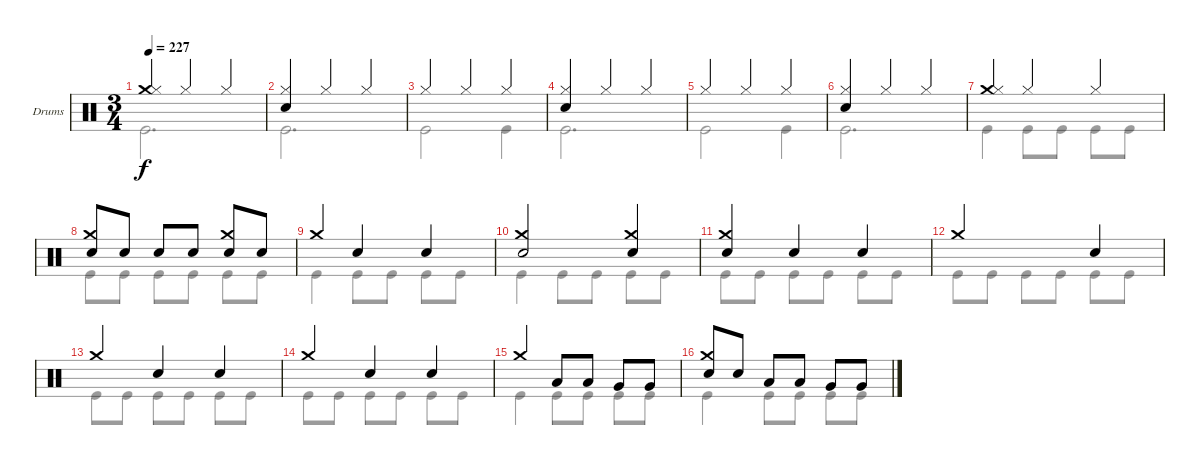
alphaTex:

\bracketExtendMode groupsimilarinstruments
\firstSystemTrackNameOrientation horizontal
\otherSystemsTrackNameOrientation horizontal
\track ("Drumkit" "Drums") {instrument percussion}
\staff {score}
\articulation defaults
\voice
\ts (3 4)
\tempo 227
\clef neutral
\ks c
("Crash medium (hit)" "Hi-Hat (closed)").4{dy f} "Hi-Hat (closed)".4 "Hi-Hat (closed)".4 |
("Snare (hit) 2" "Hi-Hat (closed)").4 "Hi-Hat (closed)".4 "Hi-Hat (closed)".4 |
"Hi-Hat (closed)".4 "Hi-Hat (closed)".4 "Hi-Hat (closed)".4 |
("Snare (hit) 2" "Hi-Hat (closed)").4 "Hi-Hat (closed)".4 "Hi-Hat (closed)".4 |
"Hi-Hat (closed)".4 "Hi-Hat (closed)".4 "Hi-Hat (closed)".4 |
("Snare (hit) 2" "Hi-Hat (closed)").4 "Hi-Hat (closed)".4 "Hi-Hat (closed)".4 |
("Crash medium (hit)" "Hi-Hat (closed)").4 "Hi-Hat (closed)".4 "Hi-Hat (closed)".4 |
("Crash medium (hit)" "Snare (hit) 2").8 "Snare (hit) 2".8 "Snare (hit) 2".8 "Snare (hit) 2".8 ("Crash medium (hit)" "Snare (hit) 2").8 "Snare (hit) 2".8 |
"Crash medium (hit)".4 "Snare (hit) 2".4 "Snare (hit) 2".4 |
("Crash medium (hit)" "Snare (hit) 2").2 ("Crash medium (hit)" "Snare (hit) 2").4 |
("Crash medium (hit)" "Snare (hit) 2").4 "Snare (hit) 2".4 "Snare (hit) 2".4 |
"Crash medium (hit)".2 "Snare (hit) 2".4 |
"Crash medium (hit)".4 "Snare (hit) 2".4 "Snare (hit) 2".4 |
"Crash medium (hit)".4 "Snare (hit) 2".4 "Snare (hit) 2".4 |
"Crash medium (hit)".4 "Low Tom (hit)".8 "Low Tom (hit)".8 "Very Low Tom (hit)".8 "Very Low Tom (hit)".8 |
("Crash medium (hit)" "Snare (hit) 2").8 "Snare (hit) 2".8 "Low Tom (hit)".8 "Low Tom (hit)".8 "Very Low Tom (hit)".8 "Very Low Tom (hit)".8
\voice
\clef neutral
\ottava regular
\simile none
\ks c "Kick (hit)".2{d dy f}
|
"Kick (hit)".2{d} |
"Kick (hit)".2 "Kick (hit)".4 |
"Kick (hit)".2{d} |
"Kick (hit)".2 "Kick (hit)".4 |
"Kick (hit)".2{d} |
"Kick (hit)".4 "Kick (hit)".8 "Kick (hit)".8 "Kick (hit)".8 "Kick (hit)".8 |
"Kick (hit)".8 "Kick (hit)".8 "Kick (hit)".8 "Kick (hit)".8 "Kick (hit)".8 "Kick (hit)".8 |
"Kick (hit)".4 "Kick (hit)".8 "Kick (hit)".8 "Kick (hit)".8 "Kick (hit)".8 |
"Kick (hit)".4 "Kick (hit)".8 "Kick (hit)".8 "Kick (hit)".8 "Kick (hit)".8 |
"Kick (hit)".8 "Kick (hit)".8 "Kick (hit)".8 "Kick (hit)".8 "Kick (hit)".8 "Kick (hit)".8 |
"Kick (hit)".8 "Kick (hit)".8 "Kick (hit)".8 "Kick (hit)".8 "Kick (hit)".8 "Kick (hit)".8 |
"Kick (hit)".8 "Kick (hit)".8 "Kick (hit)".8 "Kick (hit)".8 "Kick (hit)".8 "Kick (hit)".8 |
"Kick (hit)".8 "Kick (hit)".8 "Kick (hit)".8 "Kick (hit)".8 "Kick (hit)".8 "Kick (hit)".8 |
"Kick (hit)".4 "Kick (hit)".8 "Kick (hit)".8 "Kick (hit)".8 "Kick (hit)".8 |
"Kick (hit)".4 "Kick (hit)".8 "Kick (hit)".8 "Kick (hit)".8 "Kick (hit)".8
